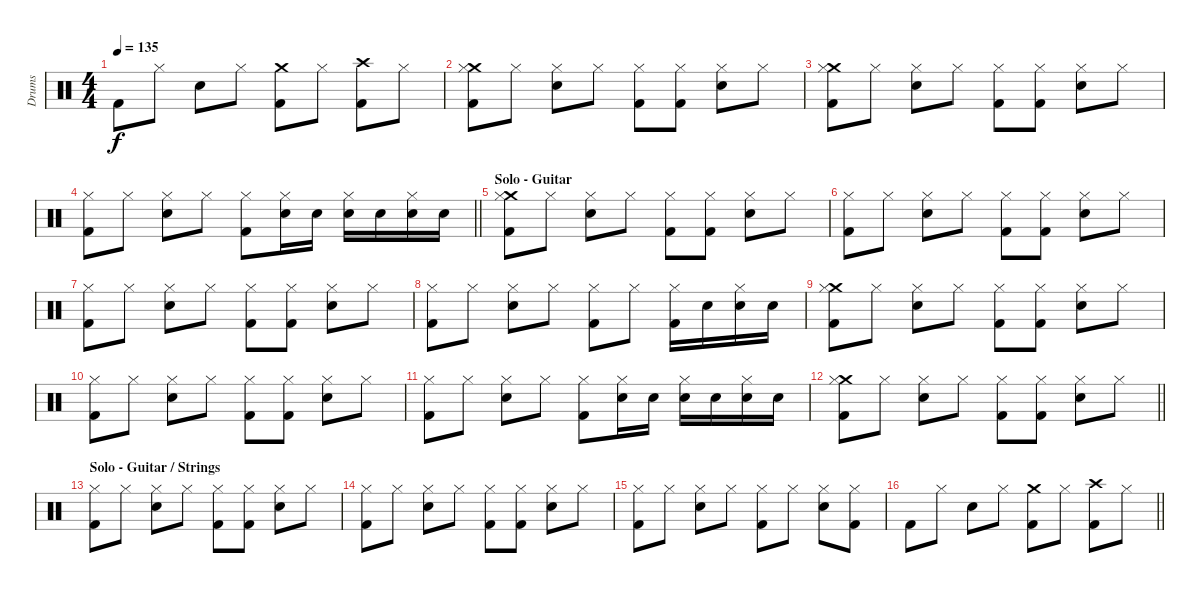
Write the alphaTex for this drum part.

\track ("Drums" "Drums") {instrument percussion}
\staff {score}
\articulation defaults
\ts (4 4)
\tempo 135
\clef neutral
\ks c "Kick (hit) 2".8{dy f} "Hi-Hat (closed)".8 "Electric Snare (hit)".8 "Hi-Hat (closed)".8
("Kick (hit) 2" "Crash medium (hit)").8 "Hi-Hat (closed)".8 ("Kick (hit) 2" "Crash high (hit)").8 "Hi-Hat (closed)".8 |
("Kick (hit) 2" "Crash medium (hit)" "Hi-Hat (closed)").8 "Hi-Hat (closed)".8 ("Snare (hit) 2" "Hi-Hat (closed)").8 "Hi-Hat (closed)".8 ("Kick (hit) 2" "Hi-Hat (closed)").8 ("Kick (hit) 2" "Hi-Hat (closed)").8 ("Snare (hit) 2" "Hi-Hat (closed)").8 "Hi-Hat (closed)".8 |
("Kick (hit) 2" "Crash medium (hit)" "Hi-Hat (closed)").8 "Hi-Hat (closed)".8 ("Snare (hit) 2" "Hi-Hat (closed)").8 "Hi-Hat (closed)".8 ("Kick (hit) 2" "Hi-Hat (closed)").8 ("Kick (hit) 2" "Hi-Hat (closed)").8 ("Snare (hit) 2" "Hi-Hat (closed)").8 "Hi-Hat (closed)".8 |
\barLineRight lightlight
("Kick (hit) 2" "Hi-Hat (closed)").8 "Hi-Hat (closed)".8 ("Snare (hit) 2" "Hi-Hat (closed)").8 "Hi-Hat (closed)".8 ("Kick (hit) 2" "Hi-Hat (closed)").8 ("Electric Snare (hit)" "Hi-Hat (closed)").16 "Electric Snare (hit)".16 ("Electric Snare (hit)" "Hi-Hat (closed)").16 "Electric Snare (hit)".16 ("Electric Snare (hit)" "Hi-Hat (closed)").16 "Electric Snare (hit)".16 |
\section ("" "Solo - Guitar")
("Kick (hit) 2" "Crash medium (hit)" "Hi-Hat (closed)").8 "Hi-Hat (closed)".8 ("Snare (hit) 2" "Hi-Hat (closed)").8 "Hi-Hat (closed)".8 ("Kick (hit) 2" "Hi-Hat (closed)").8 ("Kick (hit) 2" "Hi-Hat (closed)").8 ("Snare (hit) 2" "Hi-Hat (closed)").8 "Hi-Hat (closed)".8 |
("Kick (hit) 2" "Hi-Hat (closed)").8 "Hi-Hat (closed)".8 ("Snare (hit) 2" "Hi-Hat (closed)").8 "Hi-Hat (closed)".8 ("Kick (hit) 2" "Hi-Hat (closed)").8 ("Kick (hit) 2" "Hi-Hat (closed)").8 ("Snare (hit) 2" "Hi-Hat (closed)").8 "Hi-Hat (closed)".8 |
("Kick (hit) 2" "Hi-Hat (closed)").8 "Hi-Hat (closed)".8 ("Snare (hit) 2" "Hi-Hat (closed)").8 "Hi-Hat (closed)".8 ("Kick (hit) 2" "Hi-Hat (closed)").8 ("Kick (hit) 2" "Hi-Hat (closed)").8 ("Snare (hit) 2" "Hi-Hat (closed)").8 "Hi-Hat (closed)".8 |
("Kick (hit) 2" "Hi-Hat (closed)").8 "Hi-Hat (closed)".8 ("Snare (hit) 2" "Hi-Hat (closed)").8 "Hi-Hat (closed)".8 ("Kick (hit) 2" "Hi-Hat (closed)").8 "Hi-Hat (closed)".8 ("Kick (hit) 2" "Hi-Hat (closed)").16 "Electric Snare (hit)".16 ("Snare (hit) 2" "Hi-Hat (closed)").16 "Electric Snare (hit)".16 |
("Kick (hit) 2" "Crash medium (hit)" "Hi-Hat (closed)").8 "Hi-Hat (closed)".8 ("Snare (hit) 2" "Hi-Hat (closed)").8 "Hi-Hat (closed)".8 ("Kick (hit) 2" "Hi-Hat (closed)").8 ("Kick (hit) 2" "Hi-Hat (closed)").8 ("Snare (hit) 2" "Hi-Hat (closed)").8 "Hi-Hat (closed)".8 |
("Kick (hit) 2" "Hi-Hat (closed)").8 "Hi-Hat (closed)".8 ("Snare (hit) 2" "Hi-Hat (closed)").8 "Hi-Hat (closed)".8 ("Kick (hit) 2" "Hi-Hat (closed)").8 ("Kick (hit) 2" "Hi-Hat (closed)").8 ("Snare (hit) 2" "Hi-Hat (closed)").8 "Hi-Hat (closed)".8 |
("Kick (hit) 2" "Hi-Hat (closed)").8 "Hi-Hat (closed)".8 ("Snare (hit) 2" "Hi-Hat (closed)").8 "Hi-Hat (closed)".8 ("Kick (hit) 2" "Hi-Hat (closed)").8 ("Electric Snare (hit)" "Hi-Hat (closed)").16 "Electric Snare (hit)".16 ("Electric Snare (hit)" "Hi-Hat (closed)").16 "Electric Snare (hit)".16 ("Electric Snare (hit)" "Hi-Hat (closed)").16 "Electric Snare (hit)".16 |
\barLineRight lightlight
("Kick (hit) 2" "Crash medium (hit)" "Hi-Hat (closed)").8 "Hi-Hat (closed)".8 ("Snare (hit) 2" "Hi-Hat (closed)").8 "Hi-Hat (closed)".8 ("Kick (hit) 2" "Hi-Hat (closed)").8 ("Kick (hit) 2" "Hi-Hat (closed)").8 ("Snare (hit) 2" "Hi-Hat (closed)").8 "Hi-Hat (closed)".8 |
\section ("" "Solo - Guitar / Strings")
("Kick (hit) 2" "Hi-Hat (closed)").8 "Hi-Hat (closed)".8 ("Snare (hit) 2" "Hi-Hat (closed)").8 "Hi-Hat (closed)".8 ("Kick (hit) 2" "Hi-Hat (closed)").8 ("Kick (hit) 2" "Hi-Hat (closed)").8 ("Snare (hit) 2" "Hi-Hat (closed)").8 "Hi-Hat (closed)".8 |
("Kick (hit) 2" "Hi-Hat (closed)").8 "Hi-Hat (closed)".8 ("Snare (hit) 2" "Hi-Hat (closed)").8 "Hi-Hat (closed)".8 ("Kick (hit) 2" "Hi-Hat (closed)").8 ("Kick (hit) 2" "Hi-Hat (closed)").8 ("Snare (hit) 2" "Hi-Hat (closed)").8 "Hi-Hat (closed)".8 |
("Kick (hit) 2" "Hi-Hat (closed)").8 "Hi-Hat (closed)".8 ("Electric Snare (hit)" "Hi-Hat (closed)").8 "Hi-Hat (closed)".8 ("Kick (hit) 2" "Hi-Hat (closed)").8 "Hi-Hat (closed)".8 ("Electric Snare (hit)" "Hi-Hat (closed)").8 ("Kick (hit) 2" "Hi-Hat (closed)").8 |
\barLineRight lightlight "Kick (hit) 2".8 "Hi-Hat (closed)".8 "Electric Snare (hit)".8 "Hi-Hat (closed)".8
("Kick (hit) 2" "Crash medium (hit)").8 "Hi-Hat (closed)".8 ("Kick (hit) 2" "Crash high (hit)").8 "Hi-Hat (closed)".8
